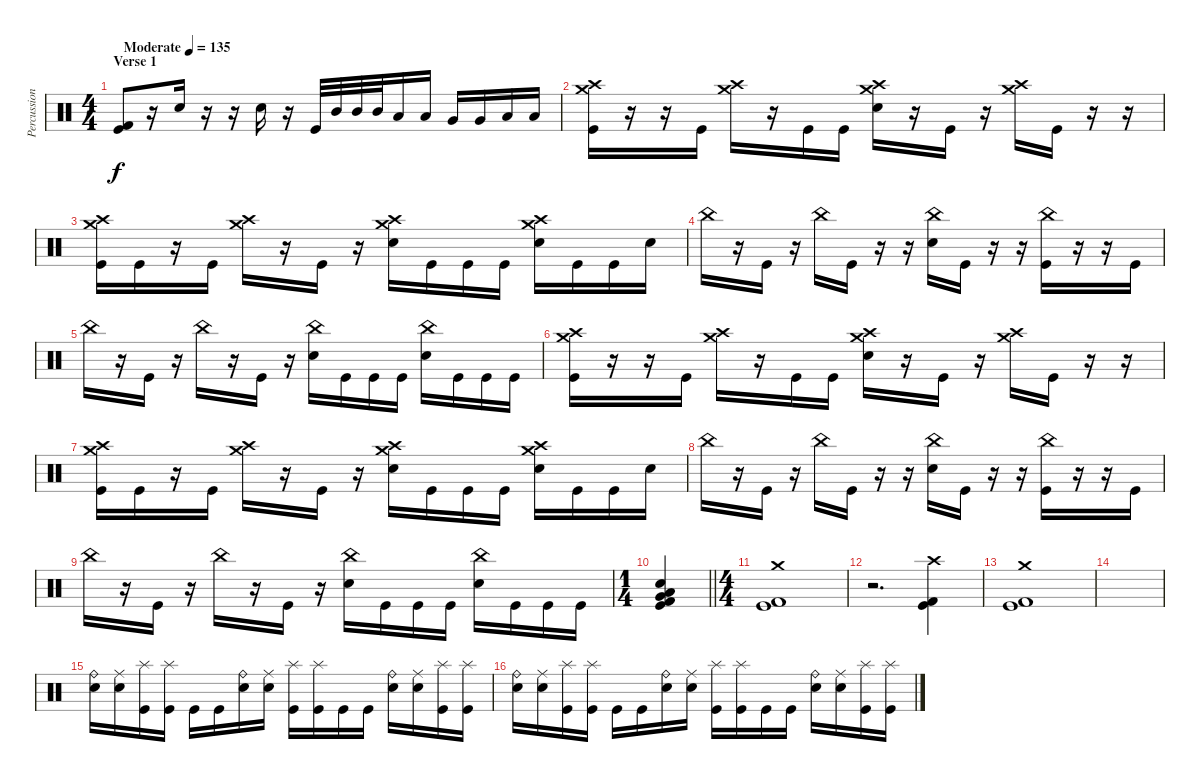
\track ("Percussion (Approx.)" "Percussion") {instrument percussion}
\staff {score}
\articulation defaults
\ts (4 4)
\section ("" "Verse 1")
\tempo (135 "Moderate")
\clef neutral
\ks c
("Kick (hit) 2" "Kick (hit)").8{dy f} r.16 "Electric Snare (hit)".16 r.16 r.16 "Electric Snare (hit)".16 r.16 "Kick (hit)".32 "Mid Tom (hit)".32 "Mid Tom (hit)".32 "Mid Tom (hit)".32 "Low Tom (hit)".16 "Low Tom (hit)".16 "Very Low Tom (hit)".16 "Very Low Tom (hit)".16 "Low Floor Tom (hit)".16 "Low Floor Tom (hit)".16 |
("Crash medium (hit)" "Crash high (hit)" "Kick (hit)").16 r.16 r.16 "Kick (hit)".16 ("Crash medium (hit)" "Crash high (hit)").16 r.16 "Kick (hit)".16 "Kick (hit)".16 ("Crash medium (hit)" "Crash high (hit)" "Electric Snare (hit)").16 r.16 "Kick (hit)".16 r.16 ("Crash medium (hit)" "Crash high (hit)").16 "Kick (hit)".16 r.16 r.16 |
("Crash medium (hit)" "Crash high (hit)" "Kick (hit)").16 "Kick (hit)".16 r.16 "Kick (hit)".16 ("Crash medium (hit)" "Crash high (hit)").16 r.16 "Kick (hit)".16 r.16 ("Crash medium (hit)" "Crash high (hit)" "Electric Snare (hit)").16 "Kick (hit)".16 "Kick (hit)".16 "Kick (hit)".16 ("Crash medium (hit)" "Crash high (hit)" "Electric Snare (hit)").16 "Kick (hit)".16 "Kick (hit)".16 "Electric Snare (hit)".16 |
"China (hit)".16 r.16 "Kick (hit)".16 r.16 "China (hit)".16 "Kick (hit)".16 r.16 r.16 ("China (hit)" "Electric Snare (hit)").16 "Kick (hit)".16 r.16 r.16 ("China (hit)" "Kick (hit)").16 r.16 r.16 "Kick (hit)".16 |
"China (hit)".16 r.16 "Kick (hit)".16 r.16 "China (hit)".16 r.16 "Kick (hit)".16 r.16 ("China (hit)" "Electric Snare (hit)").16 "Kick (hit)".16 "Kick (hit)".16 "Kick (hit)".16 ("China (hit)" "Electric Snare (hit)").16 "Kick (hit)".16 "Kick (hit)".16 "Kick (hit)".16 |
("Crash medium (hit)" "Crash high (hit)" "Kick (hit)").16 r.16 r.16 "Kick (hit)".16 ("Crash medium (hit)" "Crash high (hit)").16 r.16 "Kick (hit)".16 "Kick (hit)".16 ("Crash medium (hit)" "Crash high (hit)" "Electric Snare (hit)").16 r.16 "Kick (hit)".16 r.16 ("Crash medium (hit)" "Crash high (hit)").16 "Kick (hit)".16 r.16 r.16 |
("Crash medium (hit)" "Crash high (hit)" "Kick (hit)").16 "Kick (hit)".16 r.16 "Kick (hit)".16 ("Crash medium (hit)" "Crash high (hit)").16 r.16 "Kick (hit)".16 r.16 ("Crash medium (hit)" "Crash high (hit)" "Electric Snare (hit)").16 "Kick (hit)".16 "Kick (hit)".16 "Kick (hit)".16 ("Crash medium (hit)" "Crash high (hit)" "Electric Snare (hit)").16 "Kick (hit)".16 "Kick (hit)".16 "Electric Snare (hit)".16 |
"China (hit)".16 r.16 "Kick (hit)".16 r.16 "China (hit)".16 "Kick (hit)".16 r.16 r.16 ("China (hit)" "Electric Snare (hit)").16 "Kick (hit)".16 r.16 r.16 ("China (hit)" "Kick (hit)").16 r.16 r.16 "Kick (hit)".16 |
"China (hit)".16 r.16 "Kick (hit)".16 r.16 "China (hit)".16 r.16 "Kick (hit)".16 r.16 ("China (hit)" "Electric Snare (hit)").16 "Kick (hit)".16 "Kick (hit)".16 "Kick (hit)".16 ("China (hit)" "Electric Snare (hit)").16 "Kick (hit)".16 "Kick (hit)".16 "Kick (hit)".16 |
\ts (1 4)
\barLineRight lightlight
("Kick (hit) 2" "Very Low Tom (hit)" "Low Floor Tom (hit)" "Kick (hit)" "Electric Snare (hit)").4 |
\ts (4 4)
\section ("" "")
("Crash medium (hit)" "Kick (hit) 2" "Kick (hit)").1 |
r.2{d} ("Crash high (hit)" "Kick (hit) 2" "Kick (hit)").4 |
("Crash medium (hit)" "Kick (hit) 2" "Kick (hit)").1 |
|
("Ride (bell)" "Electric Snare (hit)").16 ("Ride (middle)" "Electric Snare (hit)").16 ("Splash (hit)" "Kick (hit)").16 ("Splash (hit)" "Kick (hit)").16 "Kick (hit)".16 "Kick (hit)".16 ("Ride (bell)" "Electric Snare (hit)").16 ("Ride (middle)" "Electric Snare (hit)").16 ("Splash (hit)" "Kick (hit)").16 ("Splash (hit)" "Kick (hit)").16 "Kick (hit)".16 "Kick (hit)".16 ("Ride (bell)" "Electric Snare (hit)").16 ("Ride (middle)" "Electric Snare (hit)").16 ("Splash (hit)" "Kick (hit)").16 ("Splash (hit)" "Kick (hit)").16 |
("Ride (bell)" "Electric Snare (hit)").16 ("Ride (middle)" "Electric Snare (hit)").16 ("Splash (hit)" "Kick (hit)").16 ("Splash (hit)" "Kick (hit)").16 "Kick (hit)".16 "Kick (hit)".16 ("Ride (bell)" "Electric Snare (hit)").16 ("Ride (middle)" "Electric Snare (hit)").16 ("Splash (hit)" "Kick (hit)").16 ("Splash (hit)" "Kick (hit)").16 "Kick (hit)".16 "Kick (hit)".16 ("Ride (bell)" "Electric Snare (hit)").16 ("Ride (middle)" "Electric Snare (hit)").16 ("Splash (hit)" "Kick (hit)").16 ("Splash (hit)" "Kick (hit)").16
